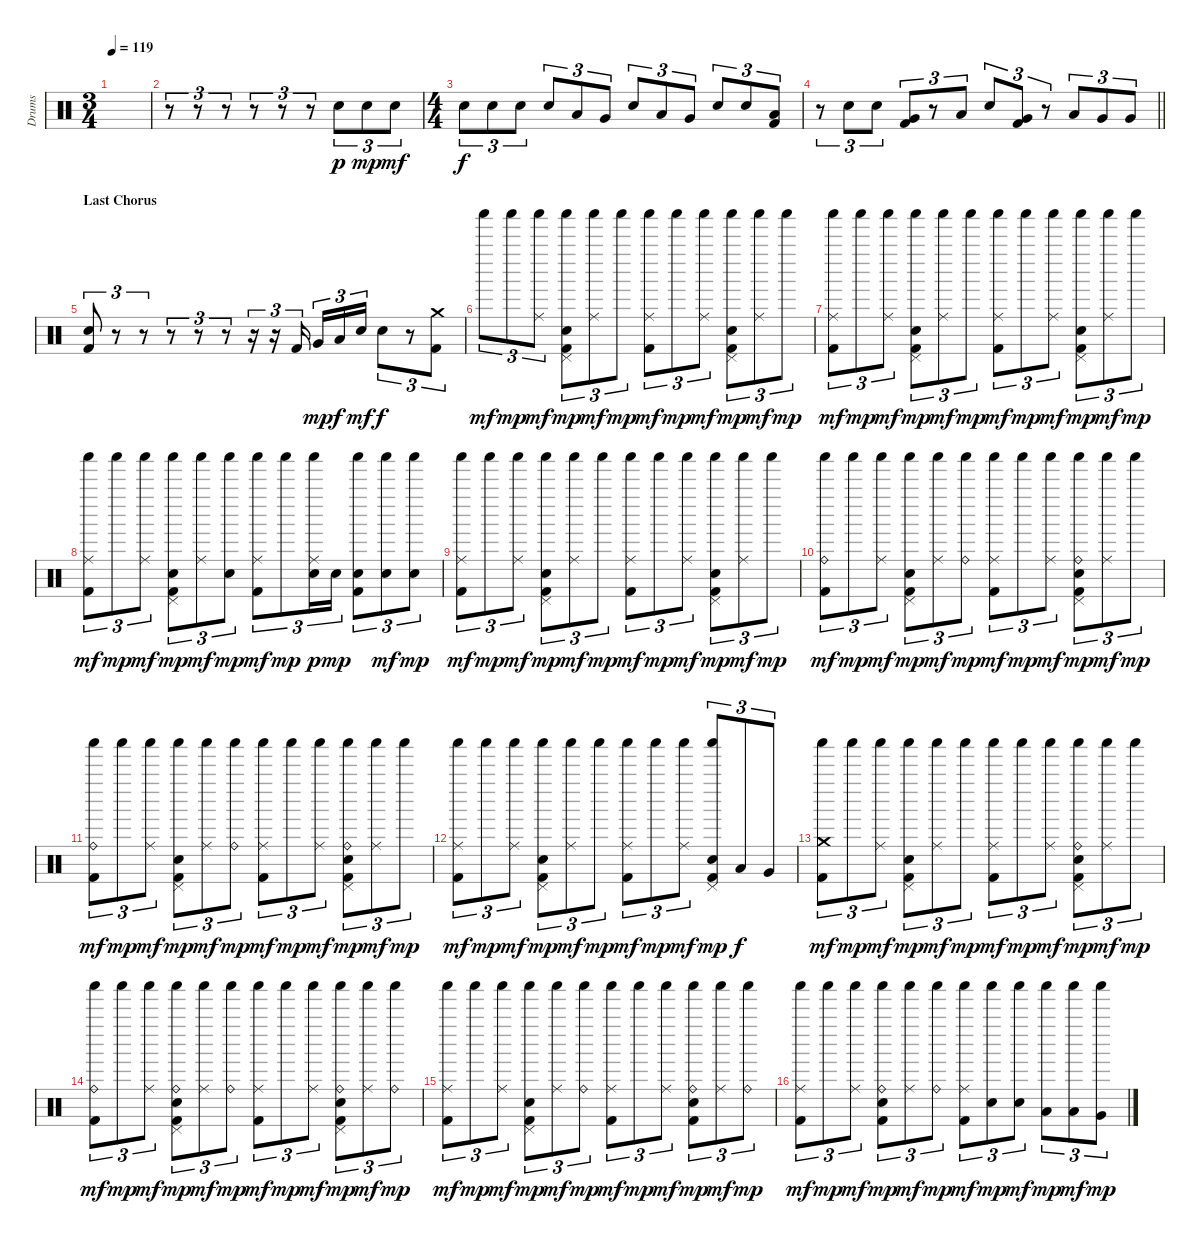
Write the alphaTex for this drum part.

\track ("Drums" "Drums") {instrument percussion}
\staff {score}
\articulation defaults
\ts (3 4)
\tempo 119
\clef neutral
\ks c
|
r.8{tu (3 2)} r.8{tu (3 2)} r.8{tu (3 2)} r.8{tu (3 2)} r.8{tu (3 2)} r.8{tu (3 2)} "Electric Snare (hit)".8{tu (3 2) dy p} "Electric Snare (hit)".8{tu (3 2) dy mp} "Electric Snare (hit)".8{tu (3 2) dy mf} |
\ts (4 4)
"Electric Snare (hit)".8{tu (3 2) dy f} "Electric Snare (hit)".8{tu (3 2)} "Electric Snare (hit)".8{tu (3 2)} "Electric Snare (hit)".8{tu (3 2)} "Low Tom (hit)".8{tu (3 2)} "Very Low Tom (hit)".8{tu (3 2)} "Electric Snare (hit)".8{tu (3 2)} "Low Tom (hit)".8{tu (3 2)} "Very Low Tom (hit)".8{tu (3 2)} "Electric Snare (hit)".8{tu (3 2)} "Electric Snare (hit)".8{tu (3 2)} ("Low Tom (hit)" "Kick (hit) 2").8{tu (3 2)} |
\barLineRight lightlight
r.8{tu (3 2)} "Electric Snare (hit)".8{tu (3 2)} "Electric Snare (hit)".8{tu (3 2)} ("Very Low Tom (hit)" "Kick (hit) 2").8{tu (3 2)} r.8{tu (3 2)} "Low Tom (hit)".8{tu (3 2)} "Electric Snare (hit)".8{tu (3 2)} ("Very Low Tom (hit)" "Kick (hit) 2").8{tu (3 2)} r.8{tu (3 2)} "Low Tom (hit)".8{tu (3 2)} "Very Low Tom (hit)".8{tu (3 2)} "Very Low Tom (hit)".8{tu (3 2)} |
\section ("" "Last Chorus")
("Electric Snare (hit)" "Kick (hit) 2").8{tu (3 2)} r.8{tu (3 2)} r.8{tu (3 2)} r.8{tu (3 2)} r.8{tu (3 2)} r.8{tu (3 2)} r.16{tu (3 2)} r.16{tu (3 2)} "Kick (hit) 2".16{tu (3 2) beam splitsecondary} "Very Low Tom (hit)".16{tu (3 2) dy mp} "Low Tom (hit)".16{tu (3 2) dy f} "Electric Snare (hit)".16{tu (3 2) dy mf} "Electric Snare (hit)".8{tu (3 2) dy f} r.8{tu (3 2)} ("Crash medium (hit)" "Kick (hit) 2").8{tu (3 2)} |
"Shaker (hit)".8{tu (3 2) dy mf} "Shaker (hit)".8{tu (3 2) dy mp} ("Ride (middle)" "Shaker (hit)").8{tu (3 2) dy mf} ("Pedal Hi-Hat (hit)" "Shaker (hit)" "Electric Snare (hit)" "Kick (hit) 2").8{tu (3 2) dy mp} ("Ride (middle)" "Shaker (hit)").8{tu (3 2) dy mf} "Shaker (hit)".8{tu (3 2) dy mp} ("Ride (middle)" "Shaker (hit)" "Kick (hit) 2").8{tu (3 2) dy mf} "Shaker (hit)".8{tu (3 2) dy mp} ("Ride (middle)" "Shaker (hit)").8{tu (3 2) dy mf} ("Pedal Hi-Hat (hit)" "Shaker (hit)" "Electric Snare (hit)" "Kick (hit) 2").8{tu (3 2) dy mp} ("Ride (middle)" "Shaker (hit)").8{tu (3 2) dy mf} "Shaker (hit)".8{tu (3 2) dy mp} |
("Ride (middle)" "Shaker (hit)" "Kick (hit) 2").8{tu (3 2) dy mf} "Shaker (hit)".8{tu (3 2) dy mp} ("Ride (middle)" "Shaker (hit)").8{tu (3 2) dy mf} ("Pedal Hi-Hat (hit)" "Shaker (hit)" "Electric Snare (hit)" "Kick (hit) 2").8{tu (3 2) dy mp} ("Ride (middle)" "Shaker (hit)").8{tu (3 2) dy mf} "Shaker (hit)".8{tu (3 2) dy mp} ("Ride (middle)" "Shaker (hit)" "Kick (hit) 2").8{tu (3 2) dy mf} "Shaker (hit)".8{tu (3 2) dy mp} ("Ride (middle)" "Shaker (hit)").8{tu (3 2) dy mf} ("Pedal Hi-Hat (hit)" "Shaker (hit)" "Electric Snare (hit)" "Kick (hit) 2").8{tu (3 2) dy mp} ("Ride (middle)" "Shaker (hit)").8{tu (3 2) dy mf} "Shaker (hit)".8{tu (3 2) dy mp} |
("Ride (middle)" "Shaker (hit)" "Kick (hit) 2").8{tu (3 2) dy mf} "Shaker (hit)".8{tu (3 2) dy mp} ("Ride (middle)" "Shaker (hit)").8{tu (3 2) dy mf} ("Pedal Hi-Hat (hit)" "Shaker (hit)" "Electric Snare (hit)" "Kick (hit) 2").8{tu (3 2) dy mp} ("Ride (middle)" "Shaker (hit)").8{tu (3 2) dy mf} ("Shaker (hit)" "Electric Snare (hit)").8{tu (3 2) dy mp} ("Ride (middle)" "Shaker (hit)" "Kick (hit) 2").8{tu (3 2) dy mf} "Shaker (hit)".8{tu (3 2) dy mp} ("Ride (middle)" "Shaker (hit)" "Electric Snare (hit)").16{tu (3 2) dy p} "Electric Snare (hit)".16{tu (3 2) dy mp} ("Shaker (hit)" "Electric Snare (hit)" "Kick (hit) 2").8{tu (3 2)} ("Shaker (hit)" "Electric Snare (hit)").8{tu (3 2) dy mf} ("Shaker (hit)" "Electric Snare (hit)").8{tu (3 2) dy mp} |
("Ride (middle)" "Shaker (hit)" "Kick (hit) 2").8{tu (3 2) dy mf} "Shaker (hit)".8{tu (3 2) dy mp} ("Ride (middle)" "Shaker (hit)").8{tu (3 2) dy mf} ("Pedal Hi-Hat (hit)" "Shaker (hit)" "Electric Snare (hit)" "Kick (hit) 2").8{tu (3 2) dy mp} ("Ride (middle)" "Shaker (hit)").8{tu (3 2) dy mf} "Shaker (hit)".8{tu (3 2) dy mp} ("Ride (middle)" "Shaker (hit)" "Kick (hit) 2").8{tu (3 2) dy mf} "Shaker (hit)".8{tu (3 2) dy mp} ("Ride (middle)" "Shaker (hit)").8{tu (3 2) dy mf} ("Pedal Hi-Hat (hit)" "Shaker (hit)" "Electric Snare (hit)" "Kick (hit) 2").8{tu (3 2) dy mp} ("Ride (middle)" "Shaker (hit)").8{tu (3 2) dy mf} "Shaker (hit)".8{tu (3 2) dy mp} |
("Ride (bell)" "Shaker (hit)" "Kick (hit) 2").8{tu (3 2) dy mf} "Shaker (hit)".8{tu (3 2) dy mp} ("Ride (middle)" "Shaker (hit)").8{tu (3 2) dy mf} ("Pedal Hi-Hat (hit)" "Shaker (hit)" "Electric Snare (hit)" "Kick (hit) 2").8{tu (3 2) dy mp} ("Ride (middle)" "Shaker (hit)").8{tu (3 2) dy mf} ("Ride (bell)" "Shaker (hit)").8{tu (3 2) dy mp} ("Ride (middle)" "Shaker (hit)" "Kick (hit) 2").8{tu (3 2) dy mf} "Shaker (hit)".8{tu (3 2) dy mp} ("Ride (middle)" "Shaker (hit)").8{tu (3 2) dy mf} ("Ride (bell)" "Shaker (hit)" "Pedal Hi-Hat (hit)" "Electric Snare (hit)" "Kick (hit) 2").8{tu (3 2) dy mp} ("Ride (middle)" "Shaker (hit)").8{tu (3 2) dy mf} "Shaker (hit)".8{tu (3 2) dy mp} |
("Ride (bell)" "Shaker (hit)" "Kick (hit) 2").8{tu (3 2) dy mf} "Shaker (hit)".8{tu (3 2) dy mp} ("Ride (middle)" "Shaker (hit)").8{tu (3 2) dy mf} ("Pedal Hi-Hat (hit)" "Shaker (hit)" "Electric Snare (hit)" "Kick (hit) 2").8{tu (3 2) dy mp} ("Ride (middle)" "Shaker (hit)").8{tu (3 2) dy mf} ("Ride (bell)" "Shaker (hit)").8{tu (3 2) dy mp} ("Ride (middle)" "Shaker (hit)" "Kick (hit) 2").8{tu (3 2) dy mf} "Shaker (hit)".8{tu (3 2) dy mp} ("Ride (middle)" "Shaker (hit)").8{tu (3 2) dy mf} ("Ride (bell)" "Shaker (hit)" "Pedal Hi-Hat (hit)" "Electric Snare (hit)" "Kick (hit) 2").8{tu (3 2) dy mp} ("Ride (middle)" "Shaker (hit)").8{tu (3 2) dy mf} "Shaker (hit)".8{tu (3 2) dy mp} |
("Ride (middle)" "Shaker (hit)" "Kick (hit) 2").8{tu (3 2) dy mf} "Shaker (hit)".8{tu (3 2) dy mp} ("Ride (middle)" "Shaker (hit)").8{tu (3 2) dy mf} ("Pedal Hi-Hat (hit)" "Shaker (hit)" "Electric Snare (hit)" "Kick (hit) 2").8{tu (3 2) dy mp} ("Ride (middle)" "Shaker (hit)").8{tu (3 2) dy mf} "Shaker (hit)".8{tu (3 2) dy mp} ("Ride (middle)" "Shaker (hit)" "Kick (hit) 2").8{tu (3 2) dy mf} "Shaker (hit)".8{tu (3 2) dy mp} ("Ride (middle)" "Shaker (hit)").8{tu (3 2) dy mf} ("Pedal Hi-Hat (hit)" "Shaker (hit)" "Electric Snare (hit)" "Kick (hit) 2").8{tu (3 2) dy mp} "Low Tom (hit)".8{tu (3 2) dy f} "Very Low Tom (hit)".8{tu (3 2)} |
("Crash medium (hit)" "Shaker (hit)" "Kick (hit) 2").8{tu (3 2) dy mf} "Shaker (hit)".8{tu (3 2) dy mp} ("Ride (middle)" "Shaker (hit)").8{tu (3 2) dy mf} ("Pedal Hi-Hat (hit)" "Shaker (hit)" "Electric Snare (hit)" "Kick (hit) 2").8{tu (3 2) dy mp} ("Ride (middle)" "Shaker (hit)").8{tu (3 2) dy mf} "Shaker (hit)".8{tu (3 2) dy mp} ("Ride (middle)" "Shaker (hit)" "Kick (hit) 2").8{tu (3 2) dy mf} "Shaker (hit)".8{tu (3 2) dy mp} ("Ride (middle)" "Shaker (hit)").8{tu (3 2) dy mf} ("Ride (bell)" "Shaker (hit)" "Pedal Hi-Hat (hit)" "Electric Snare (hit)" "Kick (hit) 2").8{tu (3 2) dy mp} ("Ride (middle)" "Shaker (hit)").8{tu (3 2) dy mf} "Shaker (hit)".8{tu (3 2) dy mp} |
("Ride (bell)" "Shaker (hit)" "Kick (hit) 2").8{tu (3 2) dy mf} "Shaker (hit)".8{tu (3 2) dy mp} ("Ride (middle)" "Shaker (hit)").8{tu (3 2) dy mf} ("Ride (bell)" "Shaker (hit)" "Pedal Hi-Hat (hit)" "Electric Snare (hit)" "Kick (hit) 2").8{tu (3 2) dy mp} ("Ride (middle)" "Shaker (hit)").8{tu (3 2) dy mf} ("Ride (bell)" "Shaker (hit)").8{tu (3 2) dy mp} ("Ride (middle)" "Shaker (hit)" "Kick (hit) 2").8{tu (3 2) dy mf} "Shaker (hit)".8{tu (3 2) dy mp} ("Ride (middle)" "Shaker (hit)").8{tu (3 2) dy mf} ("Ride (bell)" "Shaker (hit)" "Pedal Hi-Hat (hit)" "Electric Snare (hit)" "Kick (hit) 2").8{tu (3 2) dy mp} ("Ride (middle)" "Shaker (hit)").8{tu (3 2) dy mf} ("Ride (bell)" "Shaker (hit)").8{tu (3 2) dy mp} |
("Ride (middle)" "Shaker (hit)" "Kick (hit) 2").8{tu (3 2) dy mf} "Shaker (hit)".8{tu (3 2) dy mp} ("Ride (middle)" "Shaker (hit)").8{tu (3 2) dy mf} ("Pedal Hi-Hat (hit)" "Shaker (hit)" "Electric Snare (hit)" "Kick (hit) 2").8{tu (3 2) dy mp} ("Ride (middle)" "Shaker (hit)").8{tu (3 2) dy mf} ("Ride (bell)" "Shaker (hit)").8{tu (3 2) dy mp} ("Ride (middle)" "Shaker (hit)" "Kick (hit) 2").8{tu (3 2) dy mf} "Shaker (hit)".8{tu (3 2) dy mp} ("Ride (middle)" "Shaker (hit)").8{tu (3 2) dy mf} ("Ride (bell)" "Shaker (hit)" "Electric Snare (hit)" "Kick (hit) 2").8{tu (3 2) dy mp} ("Ride (middle)" "Shaker (hit)").8{tu (3 2) dy mf} ("Ride (bell)" "Shaker (hit)").8{tu (3 2) dy mp} |
("Ride (middle)" "Shaker (hit)" "Kick (hit) 2").8{tu (3 2) dy mf} "Shaker (hit)".8{tu (3 2) dy mp} ("Ride (middle)" "Shaker (hit)").8{tu (3 2) dy mf} ("Ride (bell)" "Shaker (hit)" "Electric Snare (hit)" "Kick (hit) 2").8{tu (3 2) dy mp} ("Ride (middle)" "Shaker (hit)").8{tu (3 2) dy mf} ("Ride (bell)" "Shaker (hit)").8{tu (3 2) dy mp} ("Ride (middle)" "Shaker (hit)" "Kick (hit) 2").8{tu (3 2) dy mf} ("Shaker (hit)" "Electric Snare (hit)").8{tu (3 2) dy mp} ("Shaker (hit)" "Electric Snare (hit)").8{tu (3 2) dy mf} ("Shaker (hit)" "Low Tom (hit)").8{tu (3 2) dy mp} ("Shaker (hit)" "Low Tom (hit)").8{tu (3 2) dy mf} ("Shaker (hit)" "Very Low Tom (hit)").8{tu (3 2) dy mp}
